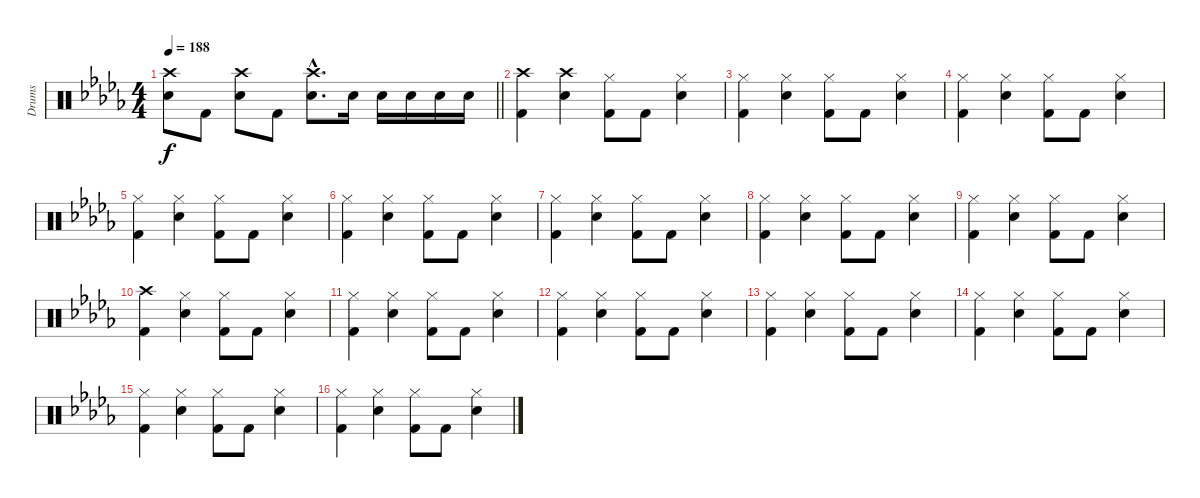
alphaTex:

\track ("Drums" "Drums") {instrument percussion}
\staff {score}
\articulation defaults
\ts (4 4)
\tempo 188
\clef neutral
\barLineRight lightlight
\ks bbminor
("Crash high (hit)" "Electric Snare (hit)").8{dy f} "Kick (hit) 2".8 ("Crash high (hit)" "Electric Snare (hit)").8 "Kick (hit) 2".8 ("Crash high (hit)"{hac} "Electric Snare (hit)"{hac}).8{d} "Electric Snare (hit)".16 "Electric Snare (hit)".16 "Electric Snare (hit)".16 "Electric Snare (hit)".16 "Electric Snare (hit)".16 |
("Crash high (hit)" "Kick (hit) 2").4 ("Crash high (hit)" "Electric Snare (hit)").4 ("Hi-Hat (closed)" "Kick (hit) 2").8 "Kick (hit) 2".8 ("Hi-Hat (closed)" "Electric Snare (hit)").4 |
("Hi-Hat (closed)" "Kick (hit) 2").4 ("Hi-Hat (closed)" "Electric Snare (hit)").4 ("Hi-Hat (closed)" "Kick (hit) 2").8 "Kick (hit) 2".8 ("Hi-Hat (closed)" "Electric Snare (hit)").4 |
("Hi-Hat (closed)" "Kick (hit) 2").4 ("Hi-Hat (closed)" "Electric Snare (hit)").4 ("Hi-Hat (closed)" "Kick (hit) 2").8 "Kick (hit) 2".8 ("Hi-Hat (closed)" "Electric Snare (hit)").4 |
("Hi-Hat (closed)" "Kick (hit) 2").4 ("Hi-Hat (closed)" "Electric Snare (hit)").4 ("Hi-Hat (closed)" "Kick (hit) 2").8 "Kick (hit) 2".8 ("Hi-Hat (closed)" "Electric Snare (hit)").4 |
("Hi-Hat (closed)" "Kick (hit) 2").4 ("Hi-Hat (closed)" "Electric Snare (hit)").4 ("Hi-Hat (closed)" "Kick (hit) 2").8 "Kick (hit) 2".8 ("Hi-Hat (closed)" "Electric Snare (hit)").4 |
("Hi-Hat (closed)" "Kick (hit) 2").4 ("Hi-Hat (closed)" "Electric Snare (hit)").4 ("Hi-Hat (closed)" "Kick (hit) 2").8 "Kick (hit) 2".8 ("Hi-Hat (closed)" "Electric Snare (hit)").4 |
("Hi-Hat (closed)" "Kick (hit) 2").4 ("Hi-Hat (closed)" "Electric Snare (hit)").4 ("Hi-Hat (closed)" "Kick (hit) 2").8 "Kick (hit) 2".8 ("Hi-Hat (closed)" "Electric Snare (hit)").4 |
("Hi-Hat (closed)" "Kick (hit) 2").4 ("Hi-Hat (closed)" "Electric Snare (hit)").4 ("Hi-Hat (closed)" "Kick (hit) 2").8 "Kick (hit) 2".8 ("Hi-Hat (closed)" "Electric Snare (hit)").4 |
("Crash high (hit)" "Kick (hit) 2").4 ("Hi-Hat (closed)" "Electric Snare (hit)").4 ("Hi-Hat (closed)" "Kick (hit) 2").8 "Kick (hit) 2".8 ("Hi-Hat (closed)" "Electric Snare (hit)").4 |
("Hi-Hat (closed)" "Kick (hit) 2").4 ("Hi-Hat (closed)" "Electric Snare (hit)").4 ("Hi-Hat (closed)" "Kick (hit) 2").8 "Kick (hit) 2".8 ("Hi-Hat (closed)" "Electric Snare (hit)").4 |
("Hi-Hat (closed)" "Kick (hit) 2").4 ("Hi-Hat (closed)" "Electric Snare (hit)").4 ("Hi-Hat (closed)" "Kick (hit) 2").8 "Kick (hit) 2".8 ("Hi-Hat (closed)" "Electric Snare (hit)").4 |
("Hi-Hat (closed)" "Kick (hit) 2").4 ("Hi-Hat (closed)" "Electric Snare (hit)").4 ("Hi-Hat (closed)" "Kick (hit) 2").8 "Kick (hit) 2".8 ("Hi-Hat (closed)" "Electric Snare (hit)").4 |
("Hi-Hat (closed)" "Kick (hit) 2").4 ("Hi-Hat (closed)" "Electric Snare (hit)").4 ("Hi-Hat (closed)" "Kick (hit) 2").8 "Kick (hit) 2".8 ("Hi-Hat (closed)" "Electric Snare (hit)").4 |
("Hi-Hat (closed)" "Kick (hit) 2").4 ("Hi-Hat (closed)" "Electric Snare (hit)").4 ("Hi-Hat (closed)" "Kick (hit) 2").8 "Kick (hit) 2".8 ("Hi-Hat (closed)" "Electric Snare (hit)").4 |
("Hi-Hat (closed)" "Kick (hit) 2").4 ("Hi-Hat (closed)" "Electric Snare (hit)").4 ("Hi-Hat (closed)" "Kick (hit) 2").8 "Kick (hit) 2".8 ("Hi-Hat (closed)" "Electric Snare (hit)").4
